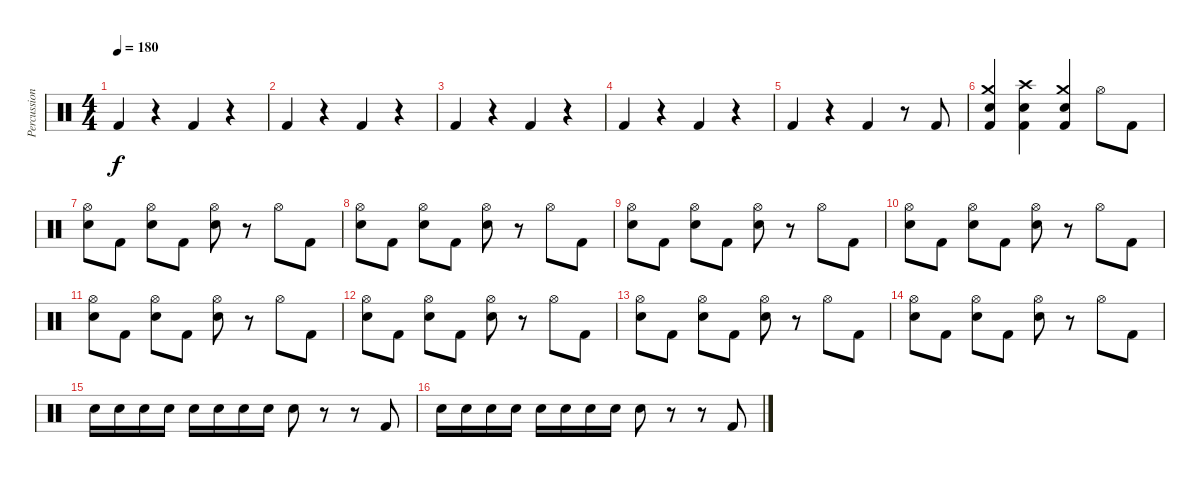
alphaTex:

\track ("Percussion" "Percussion") {instrument percussion}
\staff {score}
\articulation defaults
\ts (4 4)
\tempo 180
\clef neutral
\ks c "Kick (hit) 2".4{dy f}
r.4 "Kick (hit) 2".4 r.4 |
"Kick (hit) 2".4 r.4 "Kick (hit) 2".4 r.4 |
"Kick (hit) 2".4 r.4 "Kick (hit) 2".4 r.4 |
"Kick (hit) 2".4 r.4 "Kick (hit) 2".4 r.4 |
"Kick (hit) 2".4 r.4 "Kick (hit) 2".4 r.8 "Kick (hit) 2".8 |
("Crash medium (hit)" "Snare (hit) 2" "Kick (hit) 2").4 ("Crash high (hit)" "Snare (hit) 2" "Kick (hit) 2").4 ("Crash medium (hit)" "Snare (hit) 2" "Kick (hit) 2").4 "Hi-Hat (open)".8 "Kick (hit) 2".8 |
("Hi-Hat (open)" "Snare (hit) 2").8 "Kick (hit) 2".8 ("Hi-Hat (open)" "Snare (hit) 2").8 "Kick (hit) 2".8 ("Hi-Hat (open)" "Snare (hit) 2").8 r.8 "Hi-Hat (open)".8 "Kick (hit) 2".8 |
("Hi-Hat (open)" "Snare (hit) 2").8 "Kick (hit) 2".8 ("Hi-Hat (open)" "Snare (hit) 2").8 "Kick (hit) 2".8 ("Hi-Hat (open)" "Snare (hit) 2").8 r.8 "Hi-Hat (open)".8 "Kick (hit) 2".8 |
("Hi-Hat (open)" "Snare (hit) 2").8 "Kick (hit) 2".8 ("Hi-Hat (open)" "Snare (hit) 2").8 "Kick (hit) 2".8 ("Hi-Hat (open)" "Snare (hit) 2").8 r.8 "Hi-Hat (open)".8 "Kick (hit) 2".8 |
("Hi-Hat (open)" "Snare (hit) 2").8 "Kick (hit) 2".8 ("Hi-Hat (open)" "Snare (hit) 2").8 "Kick (hit) 2".8 ("Hi-Hat (open)" "Snare (hit) 2").8 r.8 "Hi-Hat (open)".8 "Kick (hit) 2".8 |
("Hi-Hat (open)" "Snare (hit) 2").8 "Kick (hit) 2".8 ("Hi-Hat (open)" "Snare (hit) 2").8 "Kick (hit) 2".8 ("Hi-Hat (open)" "Snare (hit) 2").8 r.8 "Hi-Hat (open)".8 "Kick (hit) 2".8 |
("Hi-Hat (open)" "Snare (hit) 2").8 "Kick (hit) 2".8 ("Hi-Hat (open)" "Snare (hit) 2").8 "Kick (hit) 2".8 ("Hi-Hat (open)" "Snare (hit) 2").8 r.8 "Hi-Hat (open)".8 "Kick (hit) 2".8 |
("Hi-Hat (open)" "Snare (hit) 2").8 "Kick (hit) 2".8 ("Hi-Hat (open)" "Snare (hit) 2").8 "Kick (hit) 2".8 ("Hi-Hat (open)" "Snare (hit) 2").8 r.8 "Hi-Hat (open)".8 "Kick (hit) 2".8 |
("Hi-Hat (open)" "Snare (hit) 2").8 "Kick (hit) 2".8 ("Hi-Hat (open)" "Snare (hit) 2").8 "Kick (hit) 2".8 ("Hi-Hat (open)" "Snare (hit) 2").8 r.8 "Hi-Hat (open)".8 "Kick (hit) 2".8 |
"Snare (hit) 2".16 "Snare (hit) 2".16 "Snare (hit) 2".16 "Snare (hit) 2".16 "Snare (hit) 2".16 "Snare (hit) 2".16 "Snare (hit) 2".16 "Snare (hit) 2".16 "Snare (hit) 2".8 r.8 r.8 "Kick (hit) 2".8 |
"Snare (hit) 2".16 "Snare (hit) 2".16 "Snare (hit) 2".16 "Snare (hit) 2".16 "Snare (hit) 2".16 "Snare (hit) 2".16 "Snare (hit) 2".16 "Snare (hit) 2".16 "Snare (hit) 2".8 r.8 r.8 "Kick (hit) 2".8
